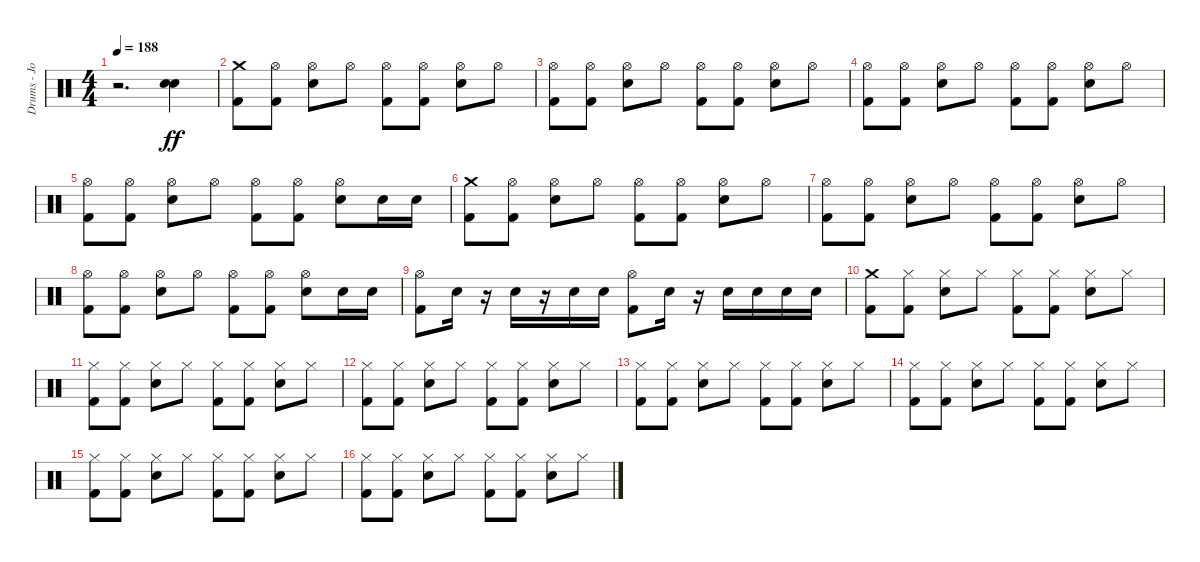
\track ("Drums - Jordan" "Drums - Jo") {instrument percussion}
\staff {score}
\articulation defaults
\ts (4 4)
\tempo 188
\clef neutral
\ks c
r.2{d dy ff} ("Electric Snare (hit)" "Electric Snare (hit)").4 |
("Kick (hit) 2" "Crash medium (hit)").8 ("Kick (hit) 2" "Hi-Hat (open)").8 ("Electric Snare (hit)" "Hi-Hat (open)").8 "Hi-Hat (open)".8 ("Hi-Hat (open)" "Kick (hit) 2").8 ("Kick (hit) 2" "Hi-Hat (open)").8 ("Hi-Hat (open)" "Electric Snare (hit)").8 "Hi-Hat (open)".8 |
("Kick (hit) 2" "Hi-Hat (open)").8 ("Kick (hit) 2" "Hi-Hat (open)").8 ("Electric Snare (hit)" "Hi-Hat (open)").8 "Hi-Hat (open)".8 ("Kick (hit) 2" "Hi-Hat (open)").8 ("Kick (hit) 2" "Hi-Hat (open)").8 ("Electric Snare (hit)" "Hi-Hat (open)").8 "Hi-Hat (open)".8 |
("Kick (hit) 2" "Hi-Hat (open)").8 ("Kick (hit) 2" "Hi-Hat (open)").8 ("Electric Snare (hit)" "Hi-Hat (open)").8 "Hi-Hat (open)".8 ("Kick (hit) 2" "Hi-Hat (open)").8 ("Kick (hit) 2" "Hi-Hat (open)").8 ("Electric Snare (hit)" "Hi-Hat (open)").8 "Hi-Hat (open)".8 |
("Kick (hit) 2" "Hi-Hat (open)").8 ("Kick (hit) 2" "Hi-Hat (open)").8 ("Electric Snare (hit)" "Hi-Hat (open)").8 "Hi-Hat (open)".8 ("Kick (hit) 2" "Hi-Hat (open)").8 ("Kick (hit) 2" "Hi-Hat (open)").8 ("Electric Snare (hit)" "Hi-Hat (open)").8 "Electric Snare (hit)".16 "Electric Snare (hit)".16 |
("Kick (hit) 2" "Crash medium (hit)").8 ("Kick (hit) 2" "Hi-Hat (open)").8 ("Electric Snare (hit)" "Hi-Hat (open)").8 "Hi-Hat (open)".8 ("Hi-Hat (open)" "Kick (hit) 2").8 ("Kick (hit) 2" "Hi-Hat (open)").8 ("Hi-Hat (open)" "Electric Snare (hit)").8 "Hi-Hat (open)".8 |
("Kick (hit) 2" "Hi-Hat (open)").8 ("Hi-Hat (open)" "Kick (hit) 2").8 ("Electric Snare (hit)" "Hi-Hat (open)").8 "Hi-Hat (open)".8 ("Kick (hit) 2" "Hi-Hat (open)").8 ("Kick (hit) 2" "Hi-Hat (open)").8 ("Electric Snare (hit)" "Hi-Hat (open)").8 "Hi-Hat (open)".8 |
("Kick (hit) 2" "Hi-Hat (open)").8 ("Kick (hit) 2" "Hi-Hat (open)").8 ("Electric Snare (hit)" "Hi-Hat (open)").8 "Hi-Hat (open)".8 ("Kick (hit) 2" "Hi-Hat (open)").8 ("Kick (hit) 2" "Hi-Hat (open)").8 ("Electric Snare (hit)" "Hi-Hat (open)").8 "Electric Snare (hit)".16 "Electric Snare (hit)".16 |
("Kick (hit) 2" "Hi-Hat (open)").8 "Electric Snare (hit)".16 r.16 "Electric Snare (hit)".16 r.16 "Electric Snare (hit)".16 "Electric Snare (hit)".16 ("Kick (hit) 2" "Hi-Hat (open)").8 "Electric Snare (hit)".16 r.16 "Electric Snare (hit)".16 "Electric Snare (hit)".16 "Electric Snare (hit)".16 "Electric Snare (hit)".16 |
("Kick (hit) 2" "Crash medium (hit)").8 ("Kick (hit) 2" "Hi-Hat (closed)").8 ("Electric Snare (hit)" "Hi-Hat (closed)").8 "Hi-Hat (closed)".8 ("Kick (hit) 2" "Hi-Hat (closed)").8 ("Kick (hit) 2" "Hi-Hat (closed)").8 ("Electric Snare (hit)" "Hi-Hat (closed)").8 "Hi-Hat (closed)".8 |
("Kick (hit) 2" "Hi-Hat (closed)").8 ("Kick (hit) 2" "Hi-Hat (closed)").8 ("Electric Snare (hit)" "Hi-Hat (closed)").8 "Hi-Hat (closed)".8 ("Kick (hit) 2" "Hi-Hat (closed)").8 ("Kick (hit) 2" "Hi-Hat (closed)").8 ("Electric Snare (hit)" "Hi-Hat (closed)").8 "Hi-Hat (closed)".8 |
("Kick (hit) 2" "Hi-Hat (closed)").8 ("Kick (hit) 2" "Hi-Hat (closed)").8 ("Electric Snare (hit)" "Hi-Hat (closed)").8 "Hi-Hat (closed)".8 ("Kick (hit) 2" "Hi-Hat (closed)").8 ("Kick (hit) 2" "Hi-Hat (closed)").8 ("Electric Snare (hit)" "Hi-Hat (closed)").8 "Hi-Hat (closed)".8 |
("Kick (hit) 2" "Hi-Hat (closed)").8 ("Kick (hit) 2" "Hi-Hat (closed)").8 ("Electric Snare (hit)" "Hi-Hat (closed)").8 "Hi-Hat (closed)".8 ("Kick (hit) 2" "Hi-Hat (closed)").8 ("Kick (hit) 2" "Hi-Hat (closed)").8 ("Electric Snare (hit)" "Hi-Hat (closed)").8 "Hi-Hat (closed)".8 |
("Kick (hit) 2" "Hi-Hat (closed)").8 ("Kick (hit) 2" "Hi-Hat (closed)").8 ("Electric Snare (hit)" "Hi-Hat (closed)").8 "Hi-Hat (closed)".8 ("Kick (hit) 2" "Hi-Hat (closed)").8 ("Kick (hit) 2" "Hi-Hat (closed)").8 ("Electric Snare (hit)" "Hi-Hat (closed)").8 "Hi-Hat (closed)".8 |
("Kick (hit) 2" "Hi-Hat (closed)").8 ("Kick (hit) 2" "Hi-Hat (closed)").8 ("Electric Snare (hit)" "Hi-Hat (closed)").8 "Hi-Hat (closed)".8 ("Kick (hit) 2" "Hi-Hat (closed)").8 ("Kick (hit) 2" "Hi-Hat (closed)").8 ("Electric Snare (hit)" "Hi-Hat (closed)").8 "Hi-Hat (closed)".8 |
("Kick (hit) 2" "Hi-Hat (closed)").8 ("Kick (hit) 2" "Hi-Hat (closed)").8 ("Electric Snare (hit)" "Hi-Hat (closed)").8 "Hi-Hat (closed)".8 ("Kick (hit) 2" "Hi-Hat (closed)").8 ("Kick (hit) 2" "Hi-Hat (closed)").8 ("Electric Snare (hit)" "Hi-Hat (closed)").8 "Hi-Hat (closed)".8
